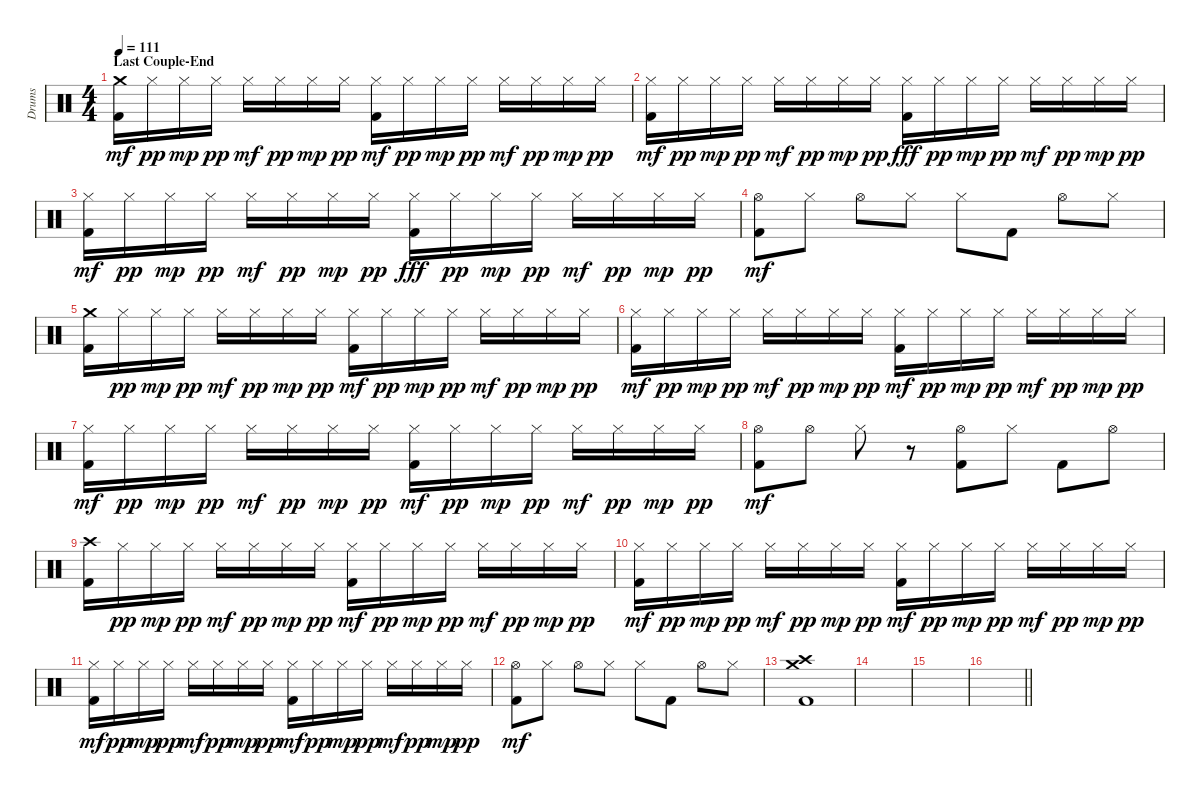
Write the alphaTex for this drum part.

\track ("Drums" "Drums") {instrument percussion}
\staff {score}
\articulation defaults
\ts (4 4)
\section ("" "Last Couple-End")
\tempo 111
\clef neutral
\ks c
("Crash medium (hit)" "Kick (hit) 2").16{dy mf} "Hi-Hat (closed)".16{dy pp} "Hi-Hat (closed)".16{dy mp} "Hi-Hat (closed)".16{dy pp} "Hi-Hat (closed)".16{dy mf} "Hi-Hat (closed)".16{dy pp} "Hi-Hat (closed)".16{dy mp} "Hi-Hat (closed)".16{dy pp} ("Hi-Hat (closed)" "Kick (hit) 2").16{dy mf} "Hi-Hat (closed)".16{dy pp} "Hi-Hat (closed)".16{dy mp} "Hi-Hat (closed)".16{dy pp} "Hi-Hat (closed)".16{dy mf} "Hi-Hat (closed)".16{dy pp} "Hi-Hat (closed)".16{dy mp} "Hi-Hat (closed)".16{dy pp} |
("Hi-Hat (closed)" "Kick (hit) 2").16{dy mf} "Hi-Hat (closed)".16{dy pp} "Hi-Hat (closed)".16{dy mp} "Hi-Hat (closed)".16{dy pp} "Hi-Hat (closed)".16{dy mf} "Hi-Hat (closed)".16{dy pp} "Hi-Hat (closed)".16{dy mp} "Hi-Hat (closed)".16{dy pp} ("Hi-Hat (closed)" "Kick (hit) 2").16{dy fff} "Hi-Hat (closed)".16{dy pp} "Hi-Hat (closed)".16{dy mp} "Hi-Hat (closed)".16{dy pp} "Hi-Hat (closed)".16{dy mf} "Hi-Hat (closed)".16{dy pp} "Hi-Hat (closed)".16{dy mp} "Hi-Hat (closed)".16{dy pp} |
("Hi-Hat (closed)" "Kick (hit) 2").16{dy mf} "Hi-Hat (closed)".16{dy pp} "Hi-Hat (closed)".16{dy mp} "Hi-Hat (closed)".16{dy pp} "Hi-Hat (closed)".16{dy mf} "Hi-Hat (closed)".16{dy pp} "Hi-Hat (closed)".16{dy mp} "Hi-Hat (closed)".16{dy pp} ("Hi-Hat (closed)" "Kick (hit) 2").16{dy fff} "Hi-Hat (closed)".16{dy pp} "Hi-Hat (closed)".16{dy mp} "Hi-Hat (closed)".16{dy pp} "Hi-Hat (closed)".16{dy mf} "Hi-Hat (closed)".16{dy pp} "Hi-Hat (closed)".16{dy mp} "Hi-Hat (closed)".16{dy pp} |
("Hi-Hat (open)" "Kick (hit) 2").8{dy mf} "Hi-Hat (closed)".8 "Hi-Hat (open)".8 "Hi-Hat (closed)".8 "Hi-Hat (closed)".8 "Kick (hit) 2".8 "Hi-Hat (open)".8 "Hi-Hat (closed)".8 |
("Crash medium (hit)" "Kick (hit) 2").16 "Hi-Hat (closed)".16{dy pp} "Hi-Hat (closed)".16{dy mp} "Hi-Hat (closed)".16{dy pp} "Hi-Hat (closed)".16{dy mf} "Hi-Hat (closed)".16{dy pp} "Hi-Hat (closed)".16{dy mp} "Hi-Hat (closed)".16{dy pp} ("Hi-Hat (closed)" "Kick (hit) 2").16{dy mf} "Hi-Hat (closed)".16{dy pp} "Hi-Hat (closed)".16{dy mp} "Hi-Hat (closed)".16{dy pp} "Hi-Hat (closed)".16{dy mf} "Hi-Hat (closed)".16{dy pp} "Hi-Hat (closed)".16{dy mp} "Hi-Hat (closed)".16{dy pp} |
("Hi-Hat (closed)" "Kick (hit) 2").16{dy mf} "Hi-Hat (closed)".16{dy pp} "Hi-Hat (closed)".16{dy mp} "Hi-Hat (closed)".16{dy pp} "Hi-Hat (closed)".16{dy mf} "Hi-Hat (closed)".16{dy pp} "Hi-Hat (closed)".16{dy mp} "Hi-Hat (closed)".16{dy pp} ("Hi-Hat (closed)" "Kick (hit) 2").16{dy mf} "Hi-Hat (closed)".16{dy pp} "Hi-Hat (closed)".16{dy mp} "Hi-Hat (closed)".16{dy pp} "Hi-Hat (closed)".16{dy mf} "Hi-Hat (closed)".16{dy pp} "Hi-Hat (closed)".16{dy mp} "Hi-Hat (closed)".16{dy pp} |
("Hi-Hat (closed)" "Kick (hit) 2").16{dy mf} "Hi-Hat (closed)".16{dy pp} "Hi-Hat (closed)".16{dy mp} "Hi-Hat (closed)".16{dy pp} "Hi-Hat (closed)".16{dy mf} "Hi-Hat (closed)".16{dy pp} "Hi-Hat (closed)".16{dy mp} "Hi-Hat (closed)".16{dy pp} ("Hi-Hat (closed)" "Kick (hit) 2").16{dy mf} "Hi-Hat (closed)".16{dy pp} "Hi-Hat (closed)".16{dy mp} "Hi-Hat (closed)".16{dy pp} "Hi-Hat (closed)".16{dy mf} "Hi-Hat (closed)".16{dy pp} "Hi-Hat (closed)".16{dy mp} "Hi-Hat (closed)".16{dy pp} |
("Hi-Hat (open)" "Kick (hit) 2").8{dy mf} "Hi-Hat (open)".8 "Hi-Hat (closed)".8 r.8 ("Hi-Hat (open)" "Kick (hit) 2").8 "Hi-Hat (closed)".8 "Kick (hit) 2".8 "Hi-Hat (open)".8 |
("Crash high (hit)" "Kick (hit) 2").16 "Hi-Hat (closed)".16{dy pp} "Hi-Hat (closed)".16{dy mp} "Hi-Hat (closed)".16{dy pp} "Hi-Hat (closed)".16{dy mf} "Hi-Hat (closed)".16{dy pp} "Hi-Hat (closed)".16{dy mp} "Hi-Hat (closed)".16{dy pp} ("Hi-Hat (closed)" "Kick (hit) 2").16{dy mf} "Hi-Hat (closed)".16{dy pp} "Hi-Hat (closed)".16{dy mp} "Hi-Hat (closed)".16{dy pp} "Hi-Hat (closed)".16{dy mf} "Hi-Hat (closed)".16{dy pp} "Hi-Hat (closed)".16{dy mp} "Hi-Hat (closed)".16{dy pp} |
("Hi-Hat (closed)" "Kick (hit) 2").16{dy mf} "Hi-Hat (closed)".16{dy pp} "Hi-Hat (closed)".16{dy mp} "Hi-Hat (closed)".16{dy pp} "Hi-Hat (closed)".16{dy mf} "Hi-Hat (closed)".16{dy pp} "Hi-Hat (closed)".16{dy mp} "Hi-Hat (closed)".16{dy pp} ("Hi-Hat (closed)" "Kick (hit) 2").16{dy mf} "Hi-Hat (closed)".16{dy pp} "Hi-Hat (closed)".16{dy mp} "Hi-Hat (closed)".16{dy pp} "Hi-Hat (closed)".16{dy mf} "Hi-Hat (closed)".16{dy pp} "Hi-Hat (closed)".16{dy mp} "Hi-Hat (closed)".16{dy pp} |
("Hi-Hat (closed)" "Kick (hit) 2").16{dy mf} "Hi-Hat (closed)".16{dy pp} "Hi-Hat (closed)".16{dy mp} "Hi-Hat (closed)".16{dy pp} "Hi-Hat (closed)".16{dy mf} "Hi-Hat (closed)".16{dy pp} "Hi-Hat (closed)".16{dy mp} "Hi-Hat (closed)".16{dy pp} ("Hi-Hat (closed)" "Kick (hit) 2").16{dy mf} "Hi-Hat (closed)".16{dy pp} "Hi-Hat (closed)".16{dy mp} "Hi-Hat (closed)".16{dy pp} "Hi-Hat (closed)".16{dy mf} "Hi-Hat (closed)".16{dy pp} "Hi-Hat (closed)".16{dy mp} "Hi-Hat (closed)".16{dy pp} |
("Hi-Hat (open)" "Kick (hit) 2").8{dy mf} "Hi-Hat (closed)".8 "Hi-Hat (open)".8 "Hi-Hat (closed)".8 "Hi-Hat (closed)".8 "Kick (hit) 2".8 "Hi-Hat (open)".8 "Hi-Hat (closed)".8 |
("Crash medium (hit)" "Crash high (hit)" "Kick (hit) 2").1 |
|
|
\barLineRight lightlight
